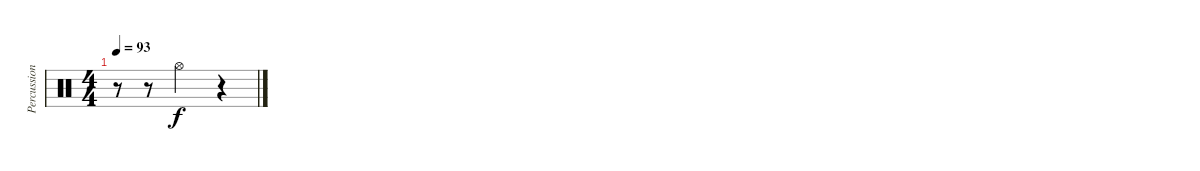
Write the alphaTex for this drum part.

\track ("Percussioni" "Percussion") {instrument percussion}
\staff {score}
\articulation defaults
\ts (4 4)
\tempo 93
\clef neutral
\ks c
r.8{dy f} r.8 "Hi-Hat (open)".2 r.4
